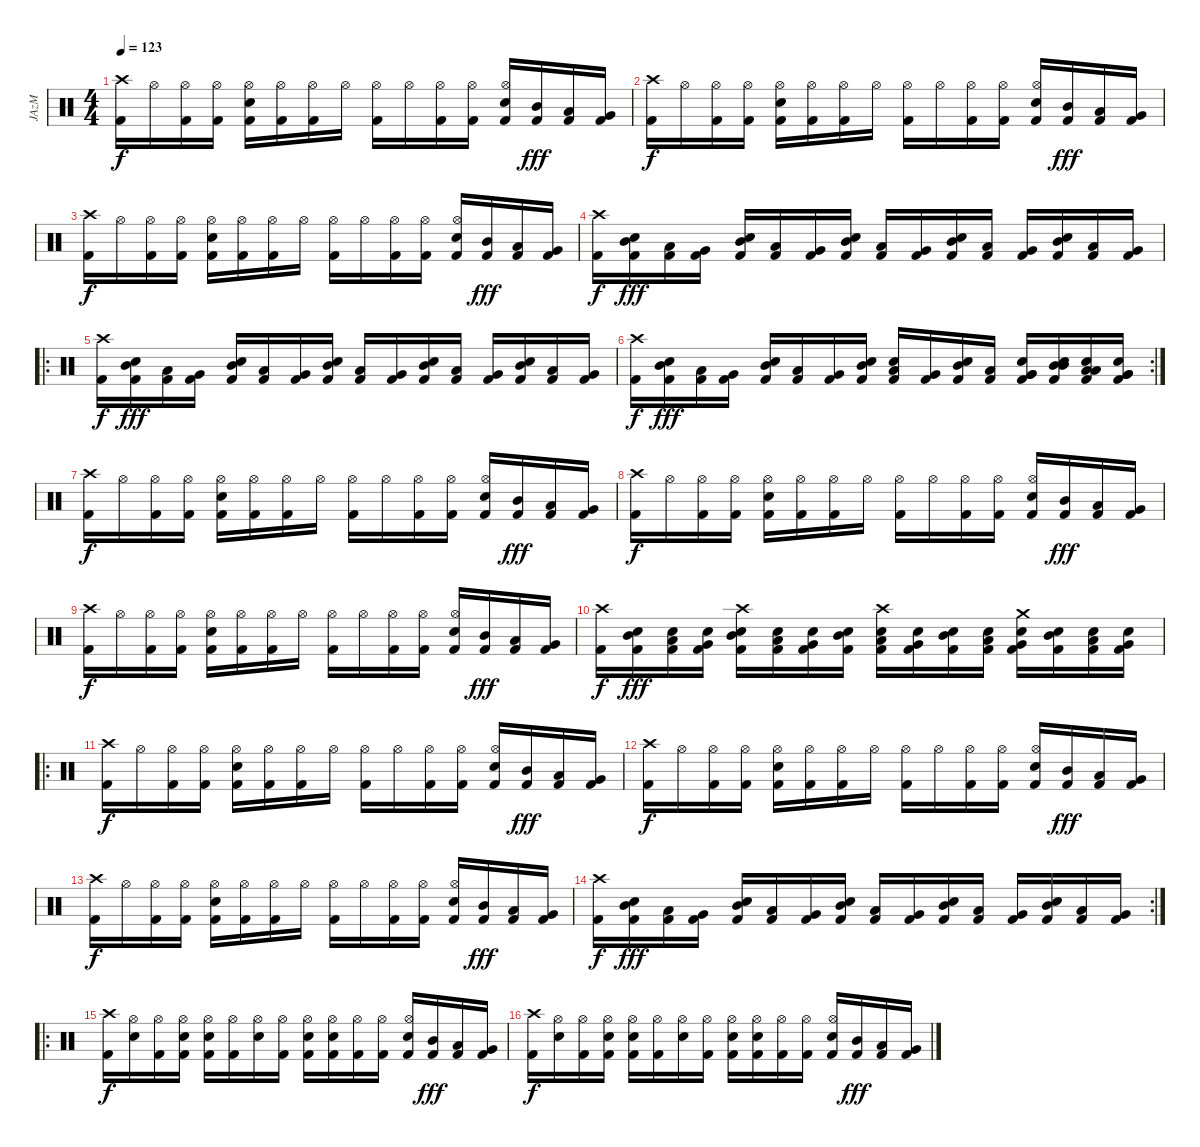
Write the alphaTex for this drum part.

\track ("JAzM" "JAzM") {instrument percussion}
\staff {score}
\articulation defaults
\ts (4 4)
\tempo 123
\clef neutral
\ks c
("Crash high (hit)" "Kick (hit) 2").16{dy f} "Hi-Hat (open)".16 ("Hi-Hat (open)" "Kick (hit) 2").16 ("Hi-Hat (open)" "Kick (hit) 2").16 ("Hi-Hat (open)" "Electric Snare (hit)" "Kick (hit) 2").16 ("Hi-Hat (open)" "Kick (hit) 2").16 ("Hi-Hat (open)" "Kick (hit) 2").16 "Hi-Hat (open)".16 ("Hi-Hat (open)" "Kick (hit) 2").16 "Hi-Hat (open)".16 ("Hi-Hat (open)" "Kick (hit) 2").16 ("Hi-Hat (open)" "Kick (hit) 2").16 ("Hi-Hat (open)" "Electric Snare (hit)" "Kick (hit) 2").16 ("Mid Tom (hit)" "Kick (hit) 2").16{dy fff} ("Low Tom (hit)" "Kick (hit) 2").16 ("Very Low Tom (hit)" "Kick (hit) 2").16 |
("Crash high (hit)" "Kick (hit) 2").16{dy f} "Hi-Hat (open)".16 ("Hi-Hat (open)" "Kick (hit) 2").16 ("Hi-Hat (open)" "Kick (hit) 2").16 ("Hi-Hat (open)" "Electric Snare (hit)" "Kick (hit) 2").16 ("Hi-Hat (open)" "Kick (hit) 2").16 ("Hi-Hat (open)" "Kick (hit) 2").16 "Hi-Hat (open)".16 ("Hi-Hat (open)" "Kick (hit) 2").16 "Hi-Hat (open)".16 ("Hi-Hat (open)" "Kick (hit) 2").16 ("Hi-Hat (open)" "Kick (hit) 2").16 ("Hi-Hat (open)" "Electric Snare (hit)" "Kick (hit) 2").16 ("Mid Tom (hit)" "Kick (hit) 2").16{dy fff} ("Low Tom (hit)" "Kick (hit) 2").16 ("Very Low Tom (hit)" "Kick (hit) 2").16 |
("Crash high (hit)" "Kick (hit) 2").16{dy f} "Hi-Hat (open)".16 ("Hi-Hat (open)" "Kick (hit) 2").16 ("Hi-Hat (open)" "Kick (hit) 2").16 ("Hi-Hat (open)" "Electric Snare (hit)" "Kick (hit) 2").16 ("Hi-Hat (open)" "Kick (hit) 2").16 ("Hi-Hat (open)" "Kick (hit) 2").16 "Hi-Hat (open)".16 ("Hi-Hat (open)" "Kick (hit) 2").16 "Hi-Hat (open)".16 ("Hi-Hat (open)" "Kick (hit) 2").16 ("Hi-Hat (open)" "Kick (hit) 2").16 ("Hi-Hat (open)" "Electric Snare (hit)" "Kick (hit) 2").16 ("Mid Tom (hit)" "Kick (hit) 2").16{dy fff} ("Low Tom (hit)" "Kick (hit) 2").16 ("Very Low Tom (hit)" "Kick (hit) 2").16 |
("Crash high (hit)" "Kick (hit) 2").16{dy f} ("Electric Snare (hit)" "Mid Tom (hit)" "Kick (hit) 2").16{dy fff} ("Low Tom (hit)" "Kick (hit) 2").16 ("Very Low Tom (hit)" "Kick (hit) 2").16 ("Electric Snare (hit)" "Mid Tom (hit)" "Kick (hit) 2").16 ("Low Tom (hit)" "Kick (hit) 2").16 ("Very Low Tom (hit)" "Kick (hit) 2").16 ("Electric Snare (hit)" "Mid Tom (hit)" "Kick (hit) 2").16 ("Low Tom (hit)" "Kick (hit) 2").16 ("Very Low Tom (hit)" "Kick (hit) 2").16 ("Electric Snare (hit)" "Mid Tom (hit)" "Kick (hit) 2").16 ("Low Tom (hit)" "Kick (hit) 2").16 ("Very Low Tom (hit)" "Kick (hit) 2").16 ("Electric Snare (hit)" "Mid Tom (hit)" "Kick (hit) 2").16 ("Low Tom (hit)" "Kick (hit) 2").16 ("Very Low Tom (hit)" "Kick (hit) 2").16 |
\ro
("Crash high (hit)" "Kick (hit) 2").16{dy f} ("Electric Snare (hit)" "Mid Tom (hit)" "Kick (hit) 2").16{dy fff} ("Low Tom (hit)" "Kick (hit) 2").16 ("Very Low Tom (hit)" "Kick (hit) 2").16 ("Electric Snare (hit)" "Mid Tom (hit)" "Kick (hit) 2").16 ("Low Tom (hit)" "Kick (hit) 2").16 ("Very Low Tom (hit)" "Kick (hit) 2").16 ("Electric Snare (hit)" "Mid Tom (hit)" "Kick (hit) 2").16 ("Low Tom (hit)" "Kick (hit) 2").16 ("Very Low Tom (hit)" "Kick (hit) 2").16 ("Electric Snare (hit)" "Mid Tom (hit)" "Kick (hit) 2").16 ("Low Tom (hit)" "Kick (hit) 2").16 ("Very Low Tom (hit)" "Kick (hit) 2").16 ("Electric Snare (hit)" "Mid Tom (hit)" "Kick (hit) 2").16 ("Low Tom (hit)" "Kick (hit) 2").16 ("Very Low Tom (hit)" "Kick (hit) 2").16 |
\rc 2
("Crash high (hit)" "Kick (hit) 2").16{dy f} ("Electric Snare (hit)" "Mid Tom (hit)" "Kick (hit) 2").16{dy fff} ("Low Tom (hit)" "Kick (hit) 2").16 ("Very Low Tom (hit)" "Kick (hit) 2").16 ("Electric Snare (hit)" "Mid Tom (hit)" "Kick (hit) 2").16 ("Low Tom (hit)" "Kick (hit) 2").16 ("Very Low Tom (hit)" "Kick (hit) 2").16 ("Electric Snare (hit)" "Mid Tom (hit)" "Kick (hit) 2").16 ("Electric Snare (hit)" "Low Tom (hit)" "Kick (hit) 2").16 ("Very Low Tom (hit)" "Kick (hit) 2").16 ("Electric Snare (hit)" "Mid Tom (hit)" "Kick (hit) 2").16 ("Low Tom (hit)" "Kick (hit) 2").16 ("Very Low Tom (hit)" "Electric Snare (hit)" "Very Low Tom (hit)" "Kick (hit) 2").16 ("Mid Tom (hit)" "Electric Snare (hit)" "Mid Tom (hit)" "Kick (hit) 2").16 ("Low Tom (hit)" "Electric Snare (hit)" "Low Tom (hit)" "Kick (hit) 2").16 ("Very Low Tom (hit)" "Electric Snare (hit)" "Very Low Tom (hit)" "Kick (hit) 2").16 |
("Crash high (hit)" "Kick (hit) 2").16{dy f} "Hi-Hat (open)".16 ("Hi-Hat (open)" "Kick (hit) 2").16 ("Hi-Hat (open)" "Kick (hit) 2").16 ("Hi-Hat (open)" "Electric Snare (hit)" "Kick (hit) 2").16 ("Hi-Hat (open)" "Kick (hit) 2").16 ("Hi-Hat (open)" "Kick (hit) 2").16 "Hi-Hat (open)".16 ("Hi-Hat (open)" "Kick (hit) 2").16 "Hi-Hat (open)".16 ("Hi-Hat (open)" "Kick (hit) 2").16 ("Hi-Hat (open)" "Kick (hit) 2").16 ("Hi-Hat (open)" "Electric Snare (hit)" "Kick (hit) 2").16 ("Mid Tom (hit)" "Kick (hit) 2").16{dy fff} ("Low Tom (hit)" "Kick (hit) 2").16 ("Very Low Tom (hit)" "Kick (hit) 2").16 |
("Crash high (hit)" "Kick (hit) 2").16{dy f} "Hi-Hat (open)".16 ("Hi-Hat (open)" "Kick (hit) 2").16 ("Hi-Hat (open)" "Kick (hit) 2").16 ("Hi-Hat (open)" "Electric Snare (hit)" "Kick (hit) 2").16 ("Hi-Hat (open)" "Kick (hit) 2").16 ("Hi-Hat (open)" "Kick (hit) 2").16 "Hi-Hat (open)".16 ("Hi-Hat (open)" "Kick (hit) 2").16 "Hi-Hat (open)".16 ("Hi-Hat (open)" "Kick (hit) 2").16 ("Hi-Hat (open)" "Kick (hit) 2").16 ("Hi-Hat (open)" "Electric Snare (hit)" "Kick (hit) 2").16 ("Mid Tom (hit)" "Kick (hit) 2").16{dy fff} ("Low Tom (hit)" "Kick (hit) 2").16 ("Very Low Tom (hit)" "Kick (hit) 2").16 |
("Crash high (hit)" "Kick (hit) 2").16{dy f} "Hi-Hat (open)".16 ("Hi-Hat (open)" "Kick (hit) 2").16 ("Hi-Hat (open)" "Kick (hit) 2").16 ("Hi-Hat (open)" "Electric Snare (hit)" "Kick (hit) 2").16 ("Hi-Hat (open)" "Kick (hit) 2").16 ("Hi-Hat (open)" "Kick (hit) 2").16 "Hi-Hat (open)".16 ("Hi-Hat (open)" "Kick (hit) 2").16 "Hi-Hat (open)".16 ("Hi-Hat (open)" "Kick (hit) 2").16 ("Hi-Hat (open)" "Kick (hit) 2").16 ("Hi-Hat (open)" "Electric Snare (hit)" "Kick (hit) 2").16 ("Mid Tom (hit)" "Kick (hit) 2").16{dy fff} ("Low Tom (hit)" "Kick (hit) 2").16 ("Very Low Tom (hit)" "Kick (hit) 2").16 |
("Crash high (hit)" "Kick (hit) 2").16{dy f} ("Electric Snare (hit)" "Mid Tom (hit)" "Kick (hit) 2").16{dy fff} ("Electric Snare (hit)" "Low Tom (hit)" "Kick (hit) 2").16 ("Electric Snare (hit)" "Very Low Tom (hit)" "Kick (hit) 2").16 ("Crash high (hit)" "Electric Snare (hit)" "Mid Tom (hit)" "Kick (hit) 2").16 ("Electric Snare (hit)" "Low Tom (hit)" "Kick (hit) 2").16 ("Electric Snare (hit)" "Very Low Tom (hit)" "Kick (hit) 2").16 ("Electric Snare (hit)" "Mid Tom (hit)" "Kick (hit) 2").16 ("Crash high (hit)" "Electric Snare (hit)" "Low Tom (hit)" "Kick (hit) 2").16 ("Electric Snare (hit)" "Very Low Tom (hit)" "Kick (hit) 2").16 ("Electric Snare (hit)" "Mid Tom (hit)" "Kick (hit) 2").16 ("Electric Snare (hit)" "Low Tom (hit)" "Kick (hit) 2").16 ("Crash medium (hit)" "Electric Snare (hit)" "Very Low Tom (hit)" "Kick (hit) 2").16 ("Electric Snare (hit)" "Mid Tom (hit)" "Kick (hit) 2").16 ("Electric Snare (hit)" "Low Tom (hit)" "Kick (hit) 2").16 ("Electric Snare (hit)" "Very Low Tom (hit)" "Kick (hit) 2").16 |
\ro
("Crash high (hit)" "Kick (hit) 2").16{dy f} "Hi-Hat (open)".16 ("Hi-Hat (open)" "Kick (hit) 2").16 ("Hi-Hat (open)" "Kick (hit) 2").16 ("Hi-Hat (open)" "Electric Snare (hit)" "Kick (hit) 2").16 ("Hi-Hat (open)" "Kick (hit) 2").16 ("Hi-Hat (open)" "Kick (hit) 2").16 "Hi-Hat (open)".16 ("Hi-Hat (open)" "Kick (hit) 2").16 "Hi-Hat (open)".16 ("Hi-Hat (open)" "Kick (hit) 2").16 ("Hi-Hat (open)" "Kick (hit) 2").16 ("Hi-Hat (open)" "Electric Snare (hit)" "Kick (hit) 2").16 ("Mid Tom (hit)" "Kick (hit) 2").16{dy fff} ("Low Tom (hit)" "Kick (hit) 2").16 ("Very Low Tom (hit)" "Kick (hit) 2").16 |
("Crash high (hit)" "Kick (hit) 2").16{dy f} "Hi-Hat (open)".16 ("Hi-Hat (open)" "Kick (hit) 2").16 ("Hi-Hat (open)" "Kick (hit) 2").16 ("Hi-Hat (open)" "Electric Snare (hit)" "Kick (hit) 2").16 ("Hi-Hat (open)" "Kick (hit) 2").16 ("Hi-Hat (open)" "Kick (hit) 2").16 "Hi-Hat (open)".16 ("Hi-Hat (open)" "Kick (hit) 2").16 "Hi-Hat (open)".16 ("Hi-Hat (open)" "Kick (hit) 2").16 ("Hi-Hat (open)" "Kick (hit) 2").16 ("Hi-Hat (open)" "Electric Snare (hit)" "Kick (hit) 2").16 ("Mid Tom (hit)" "Kick (hit) 2").16{dy fff} ("Low Tom (hit)" "Kick (hit) 2").16 ("Very Low Tom (hit)" "Kick (hit) 2").16 |
("Crash high (hit)" "Kick (hit) 2").16{dy f} "Hi-Hat (open)".16 ("Hi-Hat (open)" "Kick (hit) 2").16 ("Hi-Hat (open)" "Kick (hit) 2").16 ("Hi-Hat (open)" "Electric Snare (hit)" "Kick (hit) 2").16 ("Hi-Hat (open)" "Kick (hit) 2").16 ("Hi-Hat (open)" "Kick (hit) 2").16 "Hi-Hat (open)".16 ("Hi-Hat (open)" "Kick (hit) 2").16 "Hi-Hat (open)".16 ("Hi-Hat (open)" "Kick (hit) 2").16 ("Hi-Hat (open)" "Kick (hit) 2").16 ("Hi-Hat (open)" "Electric Snare (hit)" "Kick (hit) 2").16 ("Mid Tom (hit)" "Kick (hit) 2").16{dy fff} ("Low Tom (hit)" "Kick (hit) 2").16 ("Very Low Tom (hit)" "Kick (hit) 2").16 |
\rc 2
("Crash high (hit)" "Kick (hit) 2").16{dy f} ("Electric Snare (hit)" "Mid Tom (hit)" "Kick (hit) 2").16{dy fff} ("Low Tom (hit)" "Kick (hit) 2").16 ("Very Low Tom (hit)" "Kick (hit) 2").16 ("Electric Snare (hit)" "Mid Tom (hit)" "Kick (hit) 2").16 ("Low Tom (hit)" "Kick (hit) 2").16 ("Very Low Tom (hit)" "Kick (hit) 2").16 ("Electric Snare (hit)" "Mid Tom (hit)" "Kick (hit) 2").16 ("Low Tom (hit)" "Kick (hit) 2").16 ("Very Low Tom (hit)" "Kick (hit) 2").16 ("Electric Snare (hit)" "Mid Tom (hit)" "Kick (hit) 2").16 ("Low Tom (hit)" "Kick (hit) 2").16 ("Very Low Tom (hit)" "Kick (hit) 2").16 ("Electric Snare (hit)" "Mid Tom (hit)" "Kick (hit) 2").16 ("Low Tom (hit)" "Kick (hit) 2").16 ("Very Low Tom (hit)" "Kick (hit) 2").16 |
\ro
("Crash high (hit)" "Kick (hit) 2").16{dy f} ("Hi-Hat (open)" "Electric Snare (hit)").16 ("Hi-Hat (open)" "Kick (hit) 2").16 ("Hi-Hat (open)" "Electric Snare (hit)" "Kick (hit) 2").16 ("Hi-Hat (open)" "Electric Snare (hit)" "Kick (hit) 2").16 ("Hi-Hat (open)" "Kick (hit) 2").16 ("Hi-Hat (open)" "Electric Snare (hit)").16 ("Hi-Hat (open)" "Kick (hit) 2").16 ("Hi-Hat (open)" "Electric Snare (hit)" "Kick (hit) 2").16 ("Hi-Hat (open)" "Electric Snare (hit)" "Kick (hit) 2").16 ("Hi-Hat (open)" "Kick (hit) 2").16 ("Hi-Hat (open)" "Kick (hit) 2").16 ("Hi-Hat (open)" "Electric Snare (hit)" "Kick (hit) 2").16 ("Mid Tom (hit)" "Kick (hit) 2").16{dy fff} ("Low Tom (hit)" "Kick (hit) 2").16 ("Very Low Tom (hit)" "Kick (hit) 2").16 |
("Crash high (hit)" "Kick (hit) 2").16{dy f} ("Hi-Hat (open)" "Electric Snare (hit)").16 ("Hi-Hat (open)" "Kick (hit) 2").16 ("Hi-Hat (open)" "Electric Snare (hit)" "Kick (hit) 2").16 ("Hi-Hat (open)" "Electric Snare (hit)" "Kick (hit) 2").16 ("Hi-Hat (open)" "Kick (hit) 2").16 ("Hi-Hat (open)" "Electric Snare (hit)").16 ("Hi-Hat (open)" "Kick (hit) 2").16 ("Hi-Hat (open)" "Electric Snare (hit)" "Kick (hit) 2").16 ("Hi-Hat (open)" "Electric Snare (hit)" "Kick (hit) 2").16 ("Hi-Hat (open)" "Kick (hit) 2").16 ("Hi-Hat (open)" "Kick (hit) 2").16 ("Hi-Hat (open)" "Electric Snare (hit)" "Kick (hit) 2").16 ("Mid Tom (hit)" "Kick (hit) 2").16{dy fff} ("Low Tom (hit)" "Kick (hit) 2").16 ("Very Low Tom (hit)" "Kick (hit) 2").16
